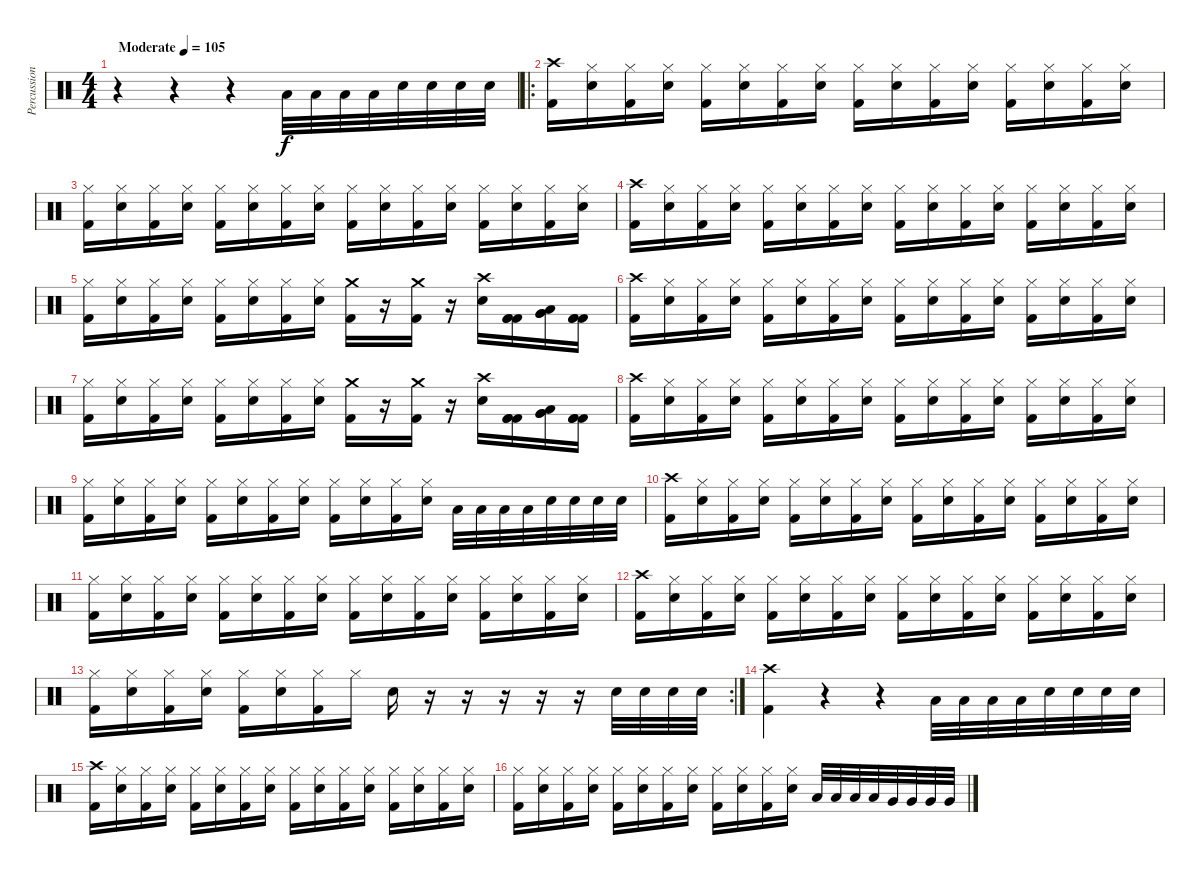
\track ("Percussions" "Percussion") {instrument percussion}
\staff {score}
\articulation defaults
\ts (4 4)
\tempo (105 "Moderate")
\clef neutral
\ks c
r.4{dy f} r.4 r.4 "Low Tom (hit)".32 "Low Tom (hit)".32 "Low Tom (hit)".32 "Low Tom (hit)".32 "Snare (hit) 2".32 "Snare (hit) 2".32 "Snare (hit) 2".32 "Snare (hit) 2".32 |
\ro
("Crash high (hit)" "Kick (hit) 2").16 ("Hi-Hat (closed)" "Snare (hit) 2").16 ("Hi-Hat (closed)" "Kick (hit) 2").16 ("Hi-Hat (closed)" "Snare (hit) 2").16 ("Hi-Hat (closed)" "Kick (hit) 2").16 ("Hi-Hat (closed)" "Snare (hit) 2").16 ("Hi-Hat (closed)" "Kick (hit) 2").16 ("Hi-Hat (closed)" "Snare (hit) 2").16 ("Hi-Hat (closed)" "Kick (hit) 2").16 ("Hi-Hat (closed)" "Snare (hit) 2").16 ("Hi-Hat (closed)" "Kick (hit) 2").16 ("Hi-Hat (closed)" "Snare (hit) 2").16 ("Hi-Hat (closed)" "Kick (hit) 2").16 ("Hi-Hat (closed)" "Snare (hit) 2").16 ("Hi-Hat (closed)" "Kick (hit) 2").16 ("Hi-Hat (closed)" "Snare (hit) 2").16 |
("Hi-Hat (closed)" "Kick (hit) 2").16 ("Hi-Hat (closed)" "Snare (hit) 2").16 ("Hi-Hat (closed)" "Kick (hit) 2").16 ("Hi-Hat (closed)" "Snare (hit) 2").16 ("Hi-Hat (closed)" "Kick (hit) 2").16 ("Hi-Hat (closed)" "Snare (hit) 2").16 ("Hi-Hat (closed)" "Kick (hit) 2").16 ("Hi-Hat (closed)" "Snare (hit) 2").16 ("Hi-Hat (closed)" "Kick (hit) 2").16 ("Hi-Hat (closed)" "Snare (hit) 2").16 ("Hi-Hat (closed)" "Kick (hit) 2").16 ("Hi-Hat (closed)" "Snare (hit) 2").16 ("Hi-Hat (closed)" "Kick (hit) 2").16 ("Hi-Hat (closed)" "Snare (hit) 2").16 ("Hi-Hat (closed)" "Kick (hit) 2").16 ("Hi-Hat (closed)" "Snare (hit) 2").16 |
("Crash high (hit)" "Kick (hit) 2").16 ("Hi-Hat (closed)" "Snare (hit) 2").16 ("Hi-Hat (closed)" "Kick (hit) 2").16 ("Hi-Hat (closed)" "Snare (hit) 2").16 ("Hi-Hat (closed)" "Kick (hit) 2").16 ("Hi-Hat (closed)" "Snare (hit) 2").16 ("Hi-Hat (closed)" "Kick (hit) 2").16 ("Hi-Hat (closed)" "Snare (hit) 2").16 ("Hi-Hat (closed)" "Kick (hit) 2").16 ("Hi-Hat (closed)" "Snare (hit) 2").16 ("Hi-Hat (closed)" "Kick (hit) 2").16 ("Hi-Hat (closed)" "Snare (hit) 2").16 ("Hi-Hat (closed)" "Kick (hit) 2").16 ("Hi-Hat (closed)" "Snare (hit) 2").16 ("Hi-Hat (closed)" "Kick (hit) 2").16 ("Hi-Hat (closed)" "Snare (hit) 2").16 |
("Hi-Hat (closed)" "Kick (hit) 2").16 ("Hi-Hat (closed)" "Snare (hit) 2").16 ("Hi-Hat (closed)" "Kick (hit) 2").16 ("Hi-Hat (closed)" "Snare (hit) 2").16 ("Hi-Hat (closed)" "Kick (hit) 2").16 ("Hi-Hat (closed)" "Snare (hit) 2").16 ("Hi-Hat (closed)" "Kick (hit) 2").16 ("Hi-Hat (closed)" "Snare (hit) 2").16 ("Crash medium (hit)" "Kick (hit) 2").16 r.16 ("Crash medium (hit)" "Kick (hit) 2").16 r.16 ("Crash high (hit)" "Snare (hit) 2").16 ("Kick (hit) 2" "Kick (hit) 2" "Kick (hit) 2").16 ("Very Low Tom (hit)" "Very Low Tom (hit)" "Low Tom (hit)").16 ("Kick (hit) 2" "Kick (hit) 2" "Kick (hit) 2").16 |
("Crash high (hit)" "Kick (hit) 2").16 ("Hi-Hat (closed)" "Snare (hit) 2").16 ("Hi-Hat (closed)" "Kick (hit) 2").16 ("Hi-Hat (closed)" "Snare (hit) 2").16 ("Hi-Hat (closed)" "Kick (hit) 2").16 ("Hi-Hat (closed)" "Snare (hit) 2").16 ("Hi-Hat (closed)" "Kick (hit) 2").16 ("Hi-Hat (closed)" "Snare (hit) 2").16 ("Hi-Hat (closed)" "Kick (hit) 2").16 ("Hi-Hat (closed)" "Snare (hit) 2").16 ("Hi-Hat (closed)" "Kick (hit) 2").16 ("Hi-Hat (closed)" "Snare (hit) 2").16 ("Hi-Hat (closed)" "Kick (hit) 2").16 ("Hi-Hat (closed)" "Snare (hit) 2").16 ("Hi-Hat (closed)" "Kick (hit) 2").16 ("Hi-Hat (closed)" "Snare (hit) 2").16 |
("Hi-Hat (closed)" "Kick (hit) 2").16 ("Hi-Hat (closed)" "Snare (hit) 2").16 ("Hi-Hat (closed)" "Kick (hit) 2").16 ("Hi-Hat (closed)" "Snare (hit) 2").16 ("Hi-Hat (closed)" "Kick (hit) 2").16 ("Hi-Hat (closed)" "Snare (hit) 2").16 ("Hi-Hat (closed)" "Kick (hit) 2").16 ("Hi-Hat (closed)" "Snare (hit) 2").16 ("Crash medium (hit)" "Kick (hit) 2").16 r.16 ("Crash medium (hit)" "Kick (hit) 2").16 r.16 ("Crash high (hit)" "Snare (hit) 2").16 ("Kick (hit) 2" "Kick (hit) 2" "Kick (hit) 2").16 ("Very Low Tom (hit)" "Very Low Tom (hit)" "Low Tom (hit)").16 ("Kick (hit) 2" "Kick (hit) 2" "Kick (hit) 2").16 |
("Crash high (hit)" "Kick (hit) 2").16 ("Hi-Hat (closed)" "Snare (hit) 2").16 ("Hi-Hat (closed)" "Kick (hit) 2").16 ("Hi-Hat (closed)" "Snare (hit) 2").16 ("Hi-Hat (closed)" "Kick (hit) 2").16 ("Hi-Hat (closed)" "Snare (hit) 2").16 ("Hi-Hat (closed)" "Kick (hit) 2").16 ("Hi-Hat (closed)" "Snare (hit) 2").16 ("Hi-Hat (closed)" "Kick (hit) 2").16 ("Hi-Hat (closed)" "Snare (hit) 2").16 ("Hi-Hat (closed)" "Kick (hit) 2").16 ("Hi-Hat (closed)" "Snare (hit) 2").16 ("Hi-Hat (closed)" "Kick (hit) 2").16 ("Hi-Hat (closed)" "Snare (hit) 2").16 ("Hi-Hat (closed)" "Kick (hit) 2").16 ("Hi-Hat (closed)" "Snare (hit) 2").16 |
("Hi-Hat (closed)" "Kick (hit) 2").16 ("Hi-Hat (closed)" "Snare (hit) 2").16 ("Hi-Hat (closed)" "Kick (hit) 2").16 ("Hi-Hat (closed)" "Snare (hit) 2").16 ("Hi-Hat (closed)" "Kick (hit) 2").16 ("Hi-Hat (closed)" "Snare (hit) 2").16 ("Hi-Hat (closed)" "Kick (hit) 2").16 ("Hi-Hat (closed)" "Snare (hit) 2").16 ("Hi-Hat (closed)" "Kick (hit) 2").16 ("Hi-Hat (closed)" "Snare (hit) 2").16 ("Hi-Hat (closed)" "Kick (hit) 2").16 ("Hi-Hat (closed)" "Snare (hit) 2").16 "Low Tom (hit)".32 "Low Tom (hit)".32 "Low Tom (hit)".32 "Low Tom (hit)".32 "Snare (hit) 2".32 "Snare (hit) 2".32 "Snare (hit) 2".32 "Snare (hit) 2".32 |
("Crash high (hit)" "Kick (hit) 2").16 ("Hi-Hat (closed)" "Snare (hit) 2").16 ("Hi-Hat (closed)" "Kick (hit) 2").16 ("Hi-Hat (closed)" "Snare (hit) 2").16 ("Hi-Hat (closed)" "Kick (hit) 2").16 ("Hi-Hat (closed)" "Snare (hit) 2").16 ("Hi-Hat (closed)" "Kick (hit) 2").16 ("Hi-Hat (closed)" "Snare (hit) 2").16 ("Hi-Hat (closed)" "Kick (hit) 2").16 ("Hi-Hat (closed)" "Snare (hit) 2").16 ("Hi-Hat (closed)" "Kick (hit) 2").16 ("Hi-Hat (closed)" "Snare (hit) 2").16 ("Hi-Hat (closed)" "Kick (hit) 2").16 ("Hi-Hat (closed)" "Snare (hit) 2").16 ("Hi-Hat (closed)" "Kick (hit) 2").16 ("Hi-Hat (closed)" "Snare (hit) 2").16 |
("Hi-Hat (closed)" "Kick (hit) 2").16 ("Hi-Hat (closed)" "Snare (hit) 2").16 ("Hi-Hat (closed)" "Kick (hit) 2").16 ("Hi-Hat (closed)" "Snare (hit) 2").16 ("Hi-Hat (closed)" "Kick (hit) 2").16 ("Hi-Hat (closed)" "Snare (hit) 2").16 ("Hi-Hat (closed)" "Kick (hit) 2").16 ("Hi-Hat (closed)" "Snare (hit) 2").16 ("Hi-Hat (closed)" "Kick (hit) 2").16 ("Hi-Hat (closed)" "Snare (hit) 2").16 ("Hi-Hat (closed)" "Kick (hit) 2").16 ("Hi-Hat (closed)" "Snare (hit) 2").16 ("Hi-Hat (closed)" "Kick (hit) 2").16 ("Hi-Hat (closed)" "Snare (hit) 2").16 ("Hi-Hat (closed)" "Kick (hit) 2").16 ("Hi-Hat (closed)" "Snare (hit) 2").16 |
("Crash high (hit)" "Kick (hit) 2").16 ("Hi-Hat (closed)" "Snare (hit) 2").16 ("Hi-Hat (closed)" "Kick (hit) 2").16 ("Hi-Hat (closed)" "Snare (hit) 2").16 ("Hi-Hat (closed)" "Kick (hit) 2").16 ("Hi-Hat (closed)" "Snare (hit) 2").16 ("Hi-Hat (closed)" "Kick (hit) 2").16 ("Hi-Hat (closed)" "Snare (hit) 2").16 ("Hi-Hat (closed)" "Kick (hit) 2").16 ("Hi-Hat (closed)" "Snare (hit) 2").16 ("Hi-Hat (closed)" "Kick (hit) 2").16 ("Hi-Hat (closed)" "Snare (hit) 2").16 ("Hi-Hat (closed)" "Kick (hit) 2").16 ("Hi-Hat (closed)" "Snare (hit) 2").16 ("Hi-Hat (closed)" "Kick (hit) 2").16 ("Hi-Hat (closed)" "Snare (hit) 2").16 |
\rc 2
("Hi-Hat (closed)" "Kick (hit) 2").16 ("Hi-Hat (closed)" "Snare (hit) 2").16 ("Hi-Hat (closed)" "Kick (hit) 2").16 ("Hi-Hat (closed)" "Snare (hit) 2").16 ("Hi-Hat (closed)" "Kick (hit) 2").16 ("Hi-Hat (closed)" "Snare (hit) 2").16 ("Hi-Hat (closed)" "Kick (hit) 2").16 "Hi-Hat (closed)".16 "Snare (hit) 2".16 r.16 r.16 r.16 r.16 r.16 "Snare (hit) 2".32 "Snare (hit) 2".32 "Snare (hit) 2".32 "Snare (hit) 2".32 |
("Crash high (hit)" "Kick (hit) 2").4 r.4 r.4 "Low Tom (hit)".32 "Low Tom (hit)".32 "Low Tom (hit)".32 "Low Tom (hit)".32 "Snare (hit) 2".32 "Snare (hit) 2".32 "Snare (hit) 2".32 "Snare (hit) 2".32 |
("Crash high (hit)" "Kick (hit) 2").16 ("Hi-Hat (closed)" "Snare (hit) 2").16 ("Hi-Hat (closed)" "Kick (hit) 2").16 ("Hi-Hat (closed)" "Snare (hit) 2").16 ("Hi-Hat (closed)" "Kick (hit) 2").16 ("Hi-Hat (closed)" "Snare (hit) 2").16 ("Hi-Hat (closed)" "Kick (hit) 2").16 ("Hi-Hat (closed)" "Snare (hit) 2").16 ("Hi-Hat (closed)" "Kick (hit) 2").16 ("Hi-Hat (closed)" "Snare (hit) 2").16 ("Hi-Hat (closed)" "Kick (hit) 2").16 ("Hi-Hat (closed)" "Snare (hit) 2").16 ("Hi-Hat (closed)" "Kick (hit) 2").16 ("Hi-Hat (closed)" "Snare (hit) 2").16 ("Hi-Hat (closed)" "Kick (hit) 2").16 ("Hi-Hat (closed)" "Snare (hit) 2").16 |
("Hi-Hat (closed)" "Kick (hit) 2").16 ("Hi-Hat (closed)" "Snare (hit) 2").16 ("Hi-Hat (closed)" "Kick (hit) 2").16 ("Hi-Hat (closed)" "Snare (hit) 2").16 ("Hi-Hat (closed)" "Kick (hit) 2").16 ("Hi-Hat (closed)" "Snare (hit) 2").16 ("Hi-Hat (closed)" "Kick (hit) 2").16 ("Hi-Hat (closed)" "Snare (hit) 2").16 ("Hi-Hat (closed)" "Kick (hit) 2").16 ("Hi-Hat (closed)" "Snare (hit) 2").16 ("Hi-Hat (closed)" "Kick (hit) 2").16 ("Hi-Hat (closed)" "Snare (hit) 2").16 "Low Tom (hit)".32 "Low Tom (hit)".32 "Low Tom (hit)".32 "Low Tom (hit)".32 "Very Low Tom (hit)".32 "Very Low Tom (hit)".32 "Very Low Tom (hit)".32 "Very Low Tom (hit)".32
